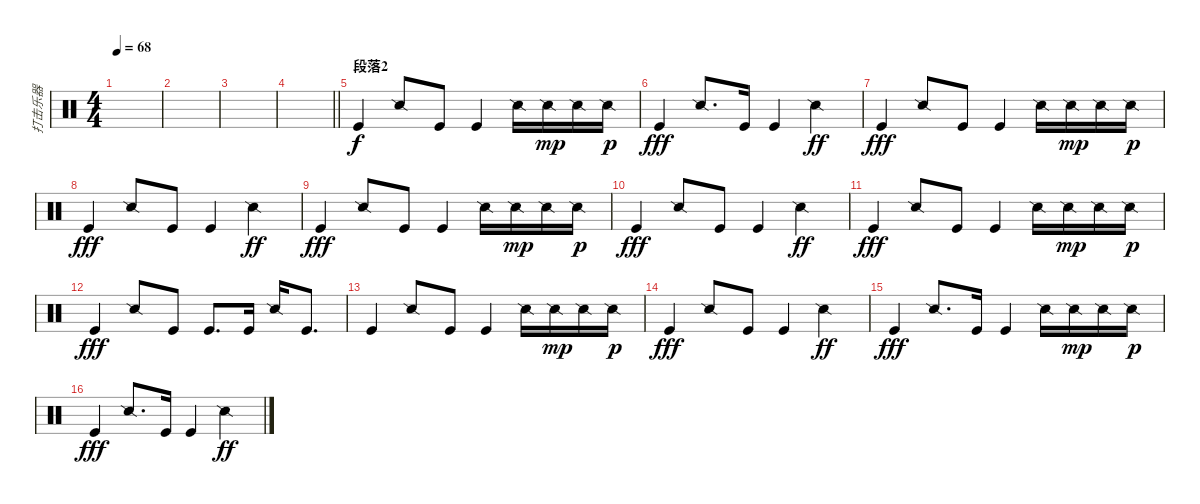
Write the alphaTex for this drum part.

\track ("打击乐器" "打击乐器") {instrument percussion}
\staff {score}
\articulation defaults
\ts (4 4)
\tempo 68
\clef neutral
\ks c
|
|
|
\barLineRight lightlight
|
\section ("" "段落2")
"Kick (hit)".4 "Snare (side stick) 2".8 "Kick (hit)".8 "Kick (hit)".4 "Snare (side stick) 2".16 "Snare (side stick) 2".16{dy mp} "Snare (side stick) 2".16 "Snare (side stick) 2".16{dy p} |
"Kick (hit)".4{dy fff} "Snare (side stick) 2".8{d} "Kick (hit)".16 "Kick (hit)".4 "Snare (side stick) 2".4{dy ff} |
"Kick (hit)".4{dy fff} "Snare (side stick) 2".8 "Kick (hit)".8 "Kick (hit)".4 "Snare (side stick) 2".16 "Snare (side stick) 2".16{dy mp} "Snare (side stick) 2".16 "Snare (side stick) 2".16{dy p} |
"Kick (hit)".4{dy fff} "Snare (side stick) 2".8 "Kick (hit)".8 "Kick (hit)".4 "Snare (side stick) 2".4{dy ff} |
"Kick (hit)".4{dy fff} "Snare (side stick) 2".8 "Kick (hit)".8 "Kick (hit)".4 "Snare (side stick) 2".16 "Snare (side stick) 2".16{dy mp} "Snare (side stick) 2".16 "Snare (side stick) 2".16{dy p} |
"Kick (hit)".4{dy fff} "Snare (side stick) 2".8 "Kick (hit)".8 "Kick (hit)".4 "Snare (side stick) 2".4{dy ff} |
"Kick (hit)".4{dy fff} "Snare (side stick) 2".8 "Kick (hit)".8 "Kick (hit)".4 "Snare (side stick) 2".16 "Snare (side stick) 2".16{dy mp} "Snare (side stick) 2".16 "Snare (side stick) 2".16{dy p} |
"Kick (hit)".4{dy fff} "Snare (side stick) 2".8 "Kick (hit)".8 "Kick (hit)".8{d} "Kick (hit)".16 "Snare (side stick) 2".16 "Kick (hit)".8{d} |
"Kick (hit)".4 "Snare (side stick) 2".8 "Kick (hit)".8 "Kick (hit)".4 "Snare (side stick) 2".16 "Snare (side stick) 2".16{dy mp} "Snare (side stick) 2".16 "Snare (side stick) 2".16{dy p} |
"Kick (hit)".4{dy fff} "Snare (side stick) 2".8 "Kick (hit)".8 "Kick (hit)".4 "Snare (side stick) 2".4{dy ff} |
"Kick (hit)".4{dy fff} "Snare (side stick) 2".8{d} "Kick (hit)".16 "Kick (hit)".4 "Snare (side stick) 2".16 "Snare (side stick) 2".16{dy mp} "Snare (side stick) 2".16 "Snare (side stick) 2".16{dy p} |
"Kick (hit)".4{dy fff} "Snare (side stick) 2".8{d} "Kick (hit)".16 "Kick (hit)".4 "Snare (side stick) 2".4{dy ff}
